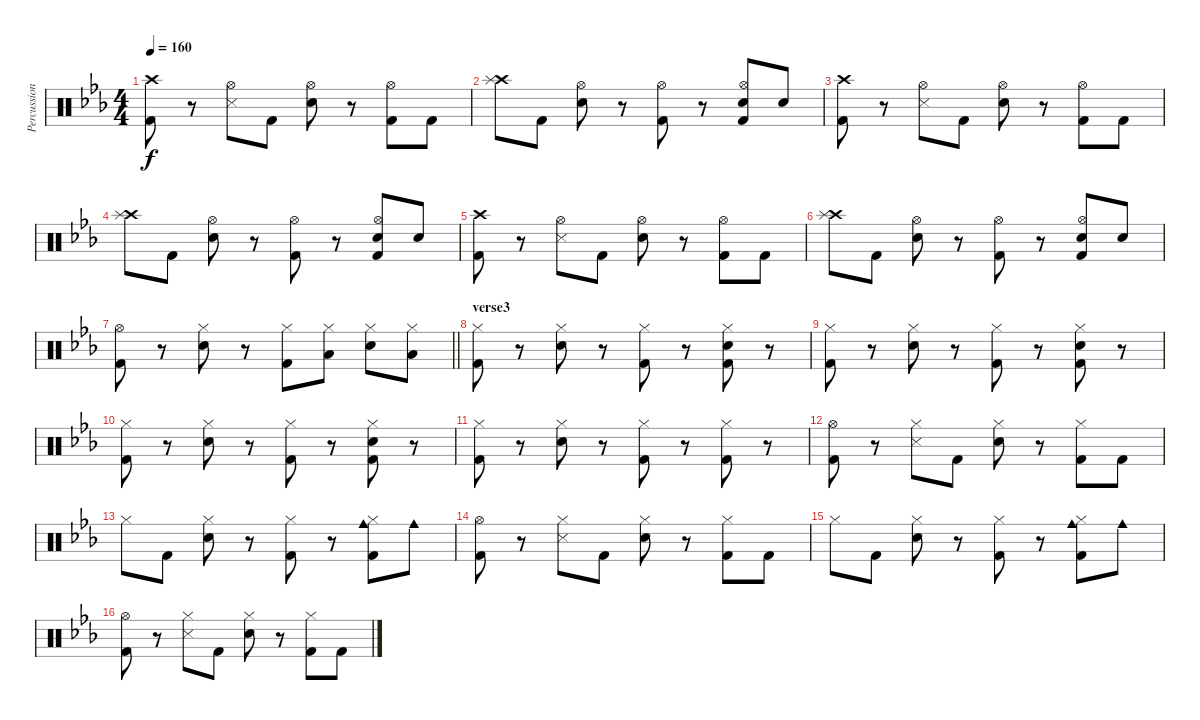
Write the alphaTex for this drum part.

\track ("Percussion" "Percussion") {instrument percussion}
\staff {score}
\articulation defaults
\ts (4 4)
\tempo 160
\clef neutral
\ks cminor
("Crash high (hit)" "Kick (hit) 2").8{dy f} r.8 ("Hi-Hat (open)" "Snare (side stick) 3").8 "Kick (hit) 2".8 ("Hi-Hat (open)" "Snare (hit) 2").8 r.8 ("Hi-Hat (open)" "Kick (hit) 2").8 "Kick (hit) 2".8 |
("Crash high (hit)" "Splash (hit)").8 "Kick (hit) 2".8 ("Hi-Hat (open)" "Snare (hit) 2").8 r.8 ("Hi-Hat (open)" "Kick (hit) 2").8 r.8 ("Snare (hit) 2" "Hi-Hat (open)" "Kick (hit) 2").8 "Snare (hit) 2".8 |
("Crash high (hit)" "Kick (hit) 2").8 r.8 ("Hi-Hat (open)" "Snare (side stick) 3").8 "Kick (hit) 2".8 ("Hi-Hat (open)" "Snare (hit) 2").8 r.8 ("Hi-Hat (open)" "Kick (hit) 2").8 "Kick (hit) 2".8 |
("Crash high (hit)" "Splash (hit)").8 "Kick (hit) 2".8 ("Hi-Hat (open)" "Snare (hit) 2").8 r.8 ("Hi-Hat (open)" "Kick (hit) 2").8 r.8 ("Snare (hit) 2" "Hi-Hat (open)" "Kick (hit) 2").8 "Snare (hit) 2".8 |
("Crash high (hit)" "Kick (hit) 2").8 r.8 ("Hi-Hat (open)" "Snare (side stick) 3").8 "Kick (hit) 2".8 ("Hi-Hat (open)" "Snare (hit) 2").8 r.8 ("Hi-Hat (open)" "Kick (hit) 2").8 "Kick (hit) 2".8 |
("Crash high (hit)" "Splash (hit)").8 "Kick (hit) 2".8 ("Hi-Hat (open)" "Snare (hit) 2").8 r.8 ("Hi-Hat (open)" "Kick (hit) 2").8 r.8 ("Snare (hit) 2" "Hi-Hat (open)" "Kick (hit) 2").8 "Snare (hit) 2".8 |
\barLineRight lightlight
("Hi-Hat (open)" "Kick (hit) 2").8 r.8 ("Hi-Hat (closed)" "Snare (hit) 2").8 r.8 ("Hi-Hat (closed)" "Kick (hit) 2").8 ("Hi-Hat (closed)" "Low Tom (hit)").8 ("Hi-Hat (closed)" "Snare (hit) 2").8 ("Hi-Hat (closed)" "Low Tom (hit)").8 |
\section ("" "verse3")
("Hi-Hat (closed)" "Kick (hit) 2").8 r.8 ("Hi-Hat (closed)" "Snare (hit) 2").8 r.8 ("Hi-Hat (closed)" "Kick (hit) 2").8 r.8 ("Hi-Hat (closed)" "Snare (hit) 2" "Kick (hit) 2").8 r.8 |
("Hi-Hat (closed)" "Kick (hit) 2").8 r.8 ("Hi-Hat (closed)" "Snare (hit) 2").8 r.8 ("Hi-Hat (closed)" "Kick (hit) 2").8 r.8 ("Hi-Hat (closed)" "Snare (hit) 2" "Kick (hit) 2").8 r.8 |
("Hi-Hat (closed)" "Kick (hit) 2").8 r.8 ("Hi-Hat (closed)" "Snare (hit) 2").8 r.8 ("Hi-Hat (closed)" "Kick (hit) 2").8 r.8 ("Hi-Hat (closed)" "Snare (hit) 2" "Kick (hit) 2").8 r.8 |
("Hi-Hat (closed)" "Kick (hit) 2").8 r.8 ("Hi-Hat (closed)" "Snare (hit) 2").8 r.8 ("Hi-Hat (closed)" "Kick (hit) 2").8 r.8 ("Hi-Hat (closed)" "Kick (hit) 2").8 r.8 |
("Hi-Hat (open)" "Kick (hit) 2").8 r.8 ("Hi-Hat (closed)" "Snare (side stick) 3").8 "Kick (hit) 2".8 ("Hi-Hat (closed)" "Snare (hit) 2").8 r.8 ("Hi-Hat (closed)" "Kick (hit) 2").8 "Kick (hit) 2".8 |
"Hi-Hat (closed)".8 "Kick (hit) 2".8 ("Hi-Hat (closed)" "Snare (hit) 2").8 r.8 ("Hi-Hat (closed)" "Kick (hit) 2").8 r.8 ("Cowbell medium (hit)" "Hi-Hat (closed)" "Kick (hit) 2").8 "Cowbell medium (hit)".8 |
("Hi-Hat (open)" "Kick (hit) 2").8 r.8 ("Hi-Hat (closed)" "Snare (side stick) 3").8 "Kick (hit) 2".8 ("Hi-Hat (closed)" "Snare (hit) 2").8 r.8 ("Hi-Hat (closed)" "Kick (hit) 2").8 "Kick (hit) 2".8 |
"Hi-Hat (closed)".8 "Kick (hit) 2".8 ("Hi-Hat (closed)" "Snare (hit) 2").8 r.8 ("Hi-Hat (closed)" "Kick (hit) 2").8 r.8 ("Cowbell medium (hit)" "Hi-Hat (closed)" "Kick (hit) 2").8 "Cowbell medium (hit)".8 |
("Hi-Hat (open)" "Kick (hit) 2").8 r.8 ("Hi-Hat (closed)" "Snare (side stick) 3").8 "Kick (hit) 2".8 ("Hi-Hat (closed)" "Snare (hit) 2").8 r.8 ("Hi-Hat (closed)" "Kick (hit) 2").8 "Kick (hit) 2".8
